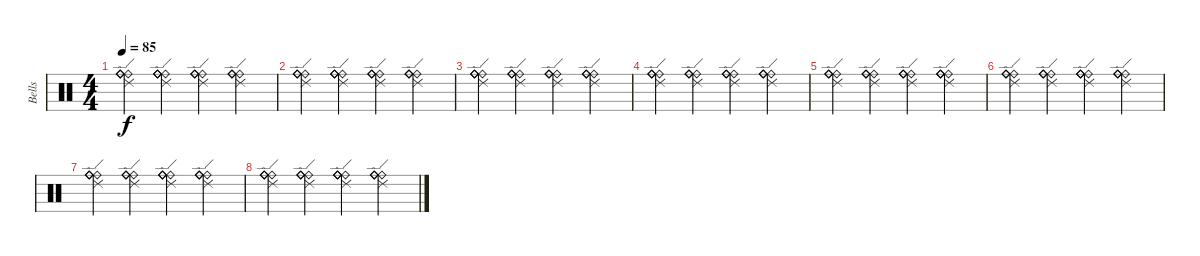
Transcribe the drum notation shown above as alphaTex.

\track ("Bells" "Bells") {instrument percussion}
\staff {score}
\articulation defaults
\ts (4 4)
\tempo 85
\clef neutral
\ks c
("Ride (bell)" "Ride (bell)" "Ride (bell)" "Ride (bell)" "Ride (edge) 2").4{dy f balance 4} ("Ride (bell)" "Ride (bell)" "Ride (bell)" "Ride (bell)" "Ride (edge) 2").4 ("Ride (bell)" "Ride (bell)" "Ride (bell)" "Ride (bell)" "Ride (edge) 2").4 ("Ride (bell)" "Ride (bell)" "Ride (bell)" "Ride (bell)" "Ride (edge) 2").4 |
("Ride (bell)" "Ride (bell)" "Ride (bell)" "Ride (bell)" "Ride (edge) 2").4 ("Ride (bell)" "Ride (bell)" "Ride (bell)" "Ride (bell)" "Ride (edge) 2").4 ("Ride (bell)" "Ride (bell)" "Ride (bell)" "Ride (bell)" "Ride (edge) 2").4 ("Ride (bell)" "Ride (bell)" "Ride (bell)" "Ride (bell)" "Ride (edge) 2").4 |
("Ride (bell)" "Ride (bell)" "Ride (bell)" "Ride (bell)" "Ride (edge) 2").4 ("Ride (bell)" "Ride (bell)" "Ride (bell)" "Ride (bell)" "Ride (edge) 2").4 ("Ride (bell)" "Ride (bell)" "Ride (bell)" "Ride (bell)" "Ride (edge) 2").4 ("Ride (bell)" "Ride (bell)" "Ride (bell)" "Ride (bell)" "Ride (edge) 2").4 |
("Ride (bell)" "Ride (bell)" "Ride (bell)" "Ride (bell)" "Ride (edge) 2").4 ("Ride (bell)" "Ride (bell)" "Ride (bell)" "Ride (bell)" "Ride (edge) 2").4 ("Ride (bell)" "Ride (bell)" "Ride (bell)" "Ride (bell)" "Ride (edge) 2").4 ("Ride (bell)" "Ride (bell)" "Ride (bell)" "Ride (bell)" "Ride (edge) 2").4 |
("Ride (bell)" "Ride (bell)" "Ride (bell)" "Ride (bell)" "Ride (edge) 2").4 ("Ride (bell)" "Ride (bell)" "Ride (bell)" "Ride (bell)" "Ride (edge) 2").4 ("Ride (bell)" "Ride (bell)" "Ride (bell)" "Ride (bell)" "Ride (edge) 2").4 ("Ride (bell)" "Ride (bell)" "Ride (bell)" "Ride (bell)" "Ride (edge) 2").4 |
("Ride (bell)" "Ride (bell)" "Ride (bell)" "Ride (bell)" "Ride (edge) 2").4 ("Ride (bell)" "Ride (bell)" "Ride (bell)" "Ride (bell)" "Ride (edge) 2").4 ("Ride (bell)" "Ride (bell)" "Ride (bell)" "Ride (bell)" "Ride (edge) 2").4 ("Ride (bell)" "Ride (bell)" "Ride (bell)" "Ride (bell)" "Ride (edge) 2").4 |
("Ride (bell)" "Ride (bell)" "Ride (bell)" "Ride (bell)" "Ride (edge) 2").4 ("Ride (bell)" "Ride (bell)" "Ride (bell)" "Ride (bell)" "Ride (edge) 2").4 ("Ride (bell)" "Ride (bell)" "Ride (bell)" "Ride (bell)" "Ride (edge) 2").4 ("Ride (bell)" "Ride (bell)" "Ride (bell)" "Ride (bell)" "Ride (edge) 2").4 |
("Ride (bell)" "Ride (bell)" "Ride (bell)" "Ride (bell)" "Ride (edge) 2").4 ("Ride (bell)" "Ride (bell)" "Ride (bell)" "Ride (bell)" "Ride (edge) 2").4 ("Ride (bell)" "Ride (bell)" "Ride (bell)" "Ride (bell)" "Ride (edge) 2").4 ("Ride (bell)" "Ride (bell)" "Ride (bell)" "Ride (bell)" "Ride (edge) 2").4
